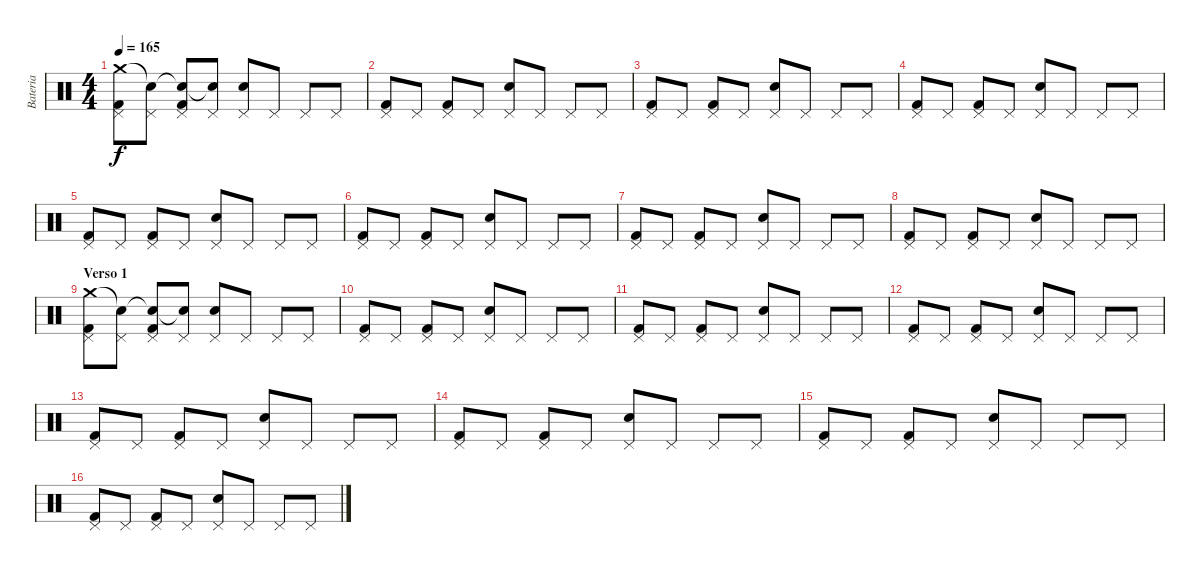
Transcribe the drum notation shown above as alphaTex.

\track ("Bateria" "Bateria") {instrument percussion}
\staff {score}
\articulation defaults
\ts (4 4)
\tempo 165
\clef neutral
\ks c
("Crash medium (hit)" "Pedal Hi-Hat (hit)" "Kick (hit) 2").8{dy f} ("Snare (hit)"{t} "Pedal Hi-Hat (hit)").8 ("Snare (hit)"{t} "Pedal Hi-Hat (hit)" "Kick (hit) 2").8 ("Snare (hit)"{t} "Pedal Hi-Hat (hit)").8 ("Pedal Hi-Hat (hit)" "Electric Snare (hit)").8 "Pedal Hi-Hat (hit)".8 "Pedal Hi-Hat (hit)".8 "Pedal Hi-Hat (hit)".8 |
("Pedal Hi-Hat (hit)" "Kick (hit) 2").8 "Pedal Hi-Hat (hit)".8 ("Pedal Hi-Hat (hit)" "Kick (hit) 2").8 "Pedal Hi-Hat (hit)".8 ("Pedal Hi-Hat (hit)" "Electric Snare (hit)").8 "Pedal Hi-Hat (hit)".8 "Pedal Hi-Hat (hit)".8 "Pedal Hi-Hat (hit)".8 |
("Pedal Hi-Hat (hit)" "Kick (hit) 2").8 "Pedal Hi-Hat (hit)".8 ("Pedal Hi-Hat (hit)" "Kick (hit) 2").8 "Pedal Hi-Hat (hit)".8 ("Pedal Hi-Hat (hit)" "Electric Snare (hit)").8 "Pedal Hi-Hat (hit)".8 "Pedal Hi-Hat (hit)".8 "Pedal Hi-Hat (hit)".8 |
("Pedal Hi-Hat (hit)" "Kick (hit) 2").8 "Pedal Hi-Hat (hit)".8 ("Pedal Hi-Hat (hit)" "Kick (hit) 2").8 "Pedal Hi-Hat (hit)".8 ("Pedal Hi-Hat (hit)" "Electric Snare (hit)").8 "Pedal Hi-Hat (hit)".8 "Pedal Hi-Hat (hit)".8 "Pedal Hi-Hat (hit)".8 |
("Pedal Hi-Hat (hit)" "Kick (hit) 2").8 "Pedal Hi-Hat (hit)".8 ("Pedal Hi-Hat (hit)" "Kick (hit) 2").8 "Pedal Hi-Hat (hit)".8 ("Pedal Hi-Hat (hit)" "Electric Snare (hit)").8 "Pedal Hi-Hat (hit)".8 "Pedal Hi-Hat (hit)".8 "Pedal Hi-Hat (hit)".8 |
("Pedal Hi-Hat (hit)" "Kick (hit) 2").8 "Pedal Hi-Hat (hit)".8 ("Pedal Hi-Hat (hit)" "Kick (hit) 2").8 "Pedal Hi-Hat (hit)".8 ("Pedal Hi-Hat (hit)" "Electric Snare (hit)").8 "Pedal Hi-Hat (hit)".8 "Pedal Hi-Hat (hit)".8 "Pedal Hi-Hat (hit)".8 |
("Pedal Hi-Hat (hit)" "Kick (hit) 2").8 "Pedal Hi-Hat (hit)".8 ("Pedal Hi-Hat (hit)" "Kick (hit) 2").8 "Pedal Hi-Hat (hit)".8 ("Pedal Hi-Hat (hit)" "Electric Snare (hit)").8 "Pedal Hi-Hat (hit)".8 "Pedal Hi-Hat (hit)".8 "Pedal Hi-Hat (hit)".8 |
("Pedal Hi-Hat (hit)" "Kick (hit) 2").8 "Pedal Hi-Hat (hit)".8 ("Pedal Hi-Hat (hit)" "Kick (hit) 2").8 "Pedal Hi-Hat (hit)".8 ("Pedal Hi-Hat (hit)" "Electric Snare (hit)").8 "Pedal Hi-Hat (hit)".8 "Pedal Hi-Hat (hit)".8 "Pedal Hi-Hat (hit)".8 |
\section ("" "Verso 1")
("Crash medium (hit)" "Pedal Hi-Hat (hit)" "Kick (hit) 2").8 ("Snare (hit)"{t} "Pedal Hi-Hat (hit)").8 ("Snare (hit)"{t} "Pedal Hi-Hat (hit)" "Kick (hit) 2").8 ("Snare (hit)"{t} "Pedal Hi-Hat (hit)").8 ("Pedal Hi-Hat (hit)" "Electric Snare (hit)").8 "Pedal Hi-Hat (hit)".8 "Pedal Hi-Hat (hit)".8 "Pedal Hi-Hat (hit)".8 |
("Pedal Hi-Hat (hit)" "Kick (hit) 2").8 "Pedal Hi-Hat (hit)".8 ("Pedal Hi-Hat (hit)" "Kick (hit) 2").8 "Pedal Hi-Hat (hit)".8 ("Pedal Hi-Hat (hit)" "Electric Snare (hit)").8 "Pedal Hi-Hat (hit)".8 "Pedal Hi-Hat (hit)".8 "Pedal Hi-Hat (hit)".8 |
("Pedal Hi-Hat (hit)" "Kick (hit) 2").8 "Pedal Hi-Hat (hit)".8 ("Pedal Hi-Hat (hit)" "Kick (hit) 2").8 "Pedal Hi-Hat (hit)".8 ("Pedal Hi-Hat (hit)" "Electric Snare (hit)").8 "Pedal Hi-Hat (hit)".8 "Pedal Hi-Hat (hit)".8 "Pedal Hi-Hat (hit)".8 |
("Pedal Hi-Hat (hit)" "Kick (hit) 2").8 "Pedal Hi-Hat (hit)".8 ("Pedal Hi-Hat (hit)" "Kick (hit) 2").8 "Pedal Hi-Hat (hit)".8 ("Pedal Hi-Hat (hit)" "Electric Snare (hit)").8 "Pedal Hi-Hat (hit)".8 "Pedal Hi-Hat (hit)".8 "Pedal Hi-Hat (hit)".8 |
("Pedal Hi-Hat (hit)" "Kick (hit) 2").8 "Pedal Hi-Hat (hit)".8 ("Pedal Hi-Hat (hit)" "Kick (hit) 2").8 "Pedal Hi-Hat (hit)".8 ("Pedal Hi-Hat (hit)" "Electric Snare (hit)").8 "Pedal Hi-Hat (hit)".8 "Pedal Hi-Hat (hit)".8 "Pedal Hi-Hat (hit)".8 |
("Pedal Hi-Hat (hit)" "Kick (hit) 2").8 "Pedal Hi-Hat (hit)".8 ("Pedal Hi-Hat (hit)" "Kick (hit) 2").8 "Pedal Hi-Hat (hit)".8 ("Pedal Hi-Hat (hit)" "Electric Snare (hit)").8 "Pedal Hi-Hat (hit)".8 "Pedal Hi-Hat (hit)".8 "Pedal Hi-Hat (hit)".8 |
("Pedal Hi-Hat (hit)" "Kick (hit) 2").8 "Pedal Hi-Hat (hit)".8 ("Pedal Hi-Hat (hit)" "Kick (hit) 2").8 "Pedal Hi-Hat (hit)".8 ("Pedal Hi-Hat (hit)" "Electric Snare (hit)").8 "Pedal Hi-Hat (hit)".8 "Pedal Hi-Hat (hit)".8 "Pedal Hi-Hat (hit)".8 |
("Pedal Hi-Hat (hit)" "Kick (hit) 2").8 "Pedal Hi-Hat (hit)".8 ("Pedal Hi-Hat (hit)" "Kick (hit) 2").8 "Pedal Hi-Hat (hit)".8 ("Pedal Hi-Hat (hit)" "Electric Snare (hit)").8 "Pedal Hi-Hat (hit)".8 "Pedal Hi-Hat (hit)".8 "Pedal Hi-Hat (hit)".8
